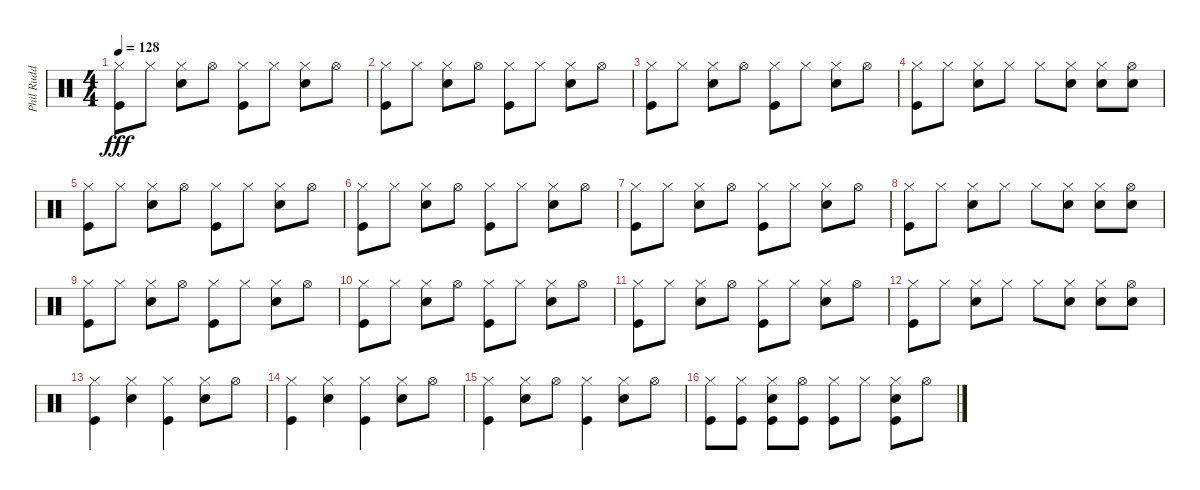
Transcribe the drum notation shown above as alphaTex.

\track ("Phil Rudd" "Phil Rudd") {instrument percussion}
\staff {score}
\articulation defaults
\ts (4 4)
\tempo 128
\clef neutral
\ks c
("Hi-Hat (closed)" "Kick (hit)").8{dy fff} "Hi-Hat (closed)".8 ("Hi-Hat (closed)" "Snare (hit) 2").8 "Hi-Hat (open)".8 ("Hi-Hat (closed)" "Kick (hit)").8 "Hi-Hat (closed)".8 ("Hi-Hat (closed)" "Snare (hit) 2").8 "Hi-Hat (open)".8 |
("Hi-Hat (closed)" "Kick (hit)").8 "Hi-Hat (closed)".8 ("Hi-Hat (closed)" "Snare (hit) 2").8 "Hi-Hat (open)".8 ("Hi-Hat (closed)" "Kick (hit)").8 "Hi-Hat (closed)".8 ("Hi-Hat (closed)" "Snare (hit) 2").8 "Hi-Hat (open)".8 |
("Hi-Hat (closed)" "Kick (hit)").8 "Hi-Hat (closed)".8 ("Hi-Hat (closed)" "Snare (hit) 2").8 "Hi-Hat (open)".8 ("Hi-Hat (closed)" "Kick (hit)").8 "Hi-Hat (closed)".8 ("Hi-Hat (closed)" "Snare (hit) 2").8 "Hi-Hat (open)".8 |
("Hi-Hat (closed)" "Kick (hit)").8 "Hi-Hat (closed)".8 ("Hi-Hat (closed)" "Snare (hit) 2").8 "Hi-Hat (closed)".8 "Hi-Hat (closed)".8 ("Hi-Hat (closed)" "Snare (hit) 2").8 ("Hi-Hat (closed)" "Snare (hit) 2").8 ("Hi-Hat (open)" "Snare (hit) 2").8 |
("Hi-Hat (closed)" "Kick (hit)").8 "Hi-Hat (closed)".8 ("Hi-Hat (closed)" "Snare (hit) 2").8 "Hi-Hat (open)".8 ("Hi-Hat (closed)" "Kick (hit)").8 "Hi-Hat (closed)".8 ("Hi-Hat (closed)" "Snare (hit) 2").8 "Hi-Hat (open)".8 |
("Hi-Hat (closed)" "Kick (hit)").8 "Hi-Hat (closed)".8 ("Hi-Hat (closed)" "Snare (hit) 2").8 "Hi-Hat (open)".8 ("Hi-Hat (closed)" "Kick (hit)").8 "Hi-Hat (closed)".8 ("Hi-Hat (closed)" "Snare (hit) 2").8 "Hi-Hat (open)".8 |
("Hi-Hat (closed)" "Kick (hit)").8 "Hi-Hat (closed)".8 ("Hi-Hat (closed)" "Snare (hit) 2").8 "Hi-Hat (open)".8 ("Hi-Hat (closed)" "Kick (hit)").8 "Hi-Hat (closed)".8 ("Hi-Hat (closed)" "Snare (hit) 2").8 "Hi-Hat (open)".8 |
("Hi-Hat (closed)" "Kick (hit)").8 "Hi-Hat (closed)".8 ("Hi-Hat (closed)" "Snare (hit) 2").8 "Hi-Hat (closed)".8 "Hi-Hat (closed)".8 ("Hi-Hat (closed)" "Snare (hit) 2").8 ("Hi-Hat (closed)" "Snare (hit) 2").8 ("Hi-Hat (open)" "Snare (hit) 2").8 |
("Hi-Hat (closed)" "Kick (hit)").8 "Hi-Hat (closed)".8 ("Hi-Hat (closed)" "Snare (hit) 2").8 "Hi-Hat (open)".8 ("Hi-Hat (closed)" "Kick (hit)").8 "Hi-Hat (closed)".8 ("Hi-Hat (closed)" "Snare (hit) 2").8 "Hi-Hat (open)".8 |
("Hi-Hat (closed)" "Kick (hit)").8 "Hi-Hat (closed)".8 ("Hi-Hat (closed)" "Snare (hit) 2").8 "Hi-Hat (open)".8 ("Hi-Hat (closed)" "Kick (hit)").8 "Hi-Hat (closed)".8 ("Hi-Hat (closed)" "Snare (hit) 2").8 "Hi-Hat (open)".8 |
("Hi-Hat (closed)" "Kick (hit)").8 "Hi-Hat (closed)".8 ("Hi-Hat (closed)" "Snare (hit) 2").8 "Hi-Hat (open)".8 ("Hi-Hat (closed)" "Kick (hit)").8 "Hi-Hat (closed)".8 ("Hi-Hat (closed)" "Snare (hit) 2").8 "Hi-Hat (open)".8 |
("Hi-Hat (closed)" "Kick (hit)").8 "Hi-Hat (closed)".8 ("Hi-Hat (closed)" "Snare (hit) 2").8 "Hi-Hat (closed)".8 "Hi-Hat (closed)".8 ("Hi-Hat (closed)" "Snare (hit) 2").8 ("Hi-Hat (closed)" "Snare (hit) 2").8 ("Hi-Hat (open)" "Snare (hit) 2").8 |
("Hi-Hat (closed)" "Kick (hit)").4 ("Hi-Hat (closed)" "Snare (hit) 2").4 ("Hi-Hat (closed)" "Kick (hit)").4 ("Hi-Hat (closed)" "Snare (hit) 2").8 "Hi-Hat (open)".8 |
("Hi-Hat (closed)" "Kick (hit)").4 ("Hi-Hat (closed)" "Snare (hit) 2").4 ("Hi-Hat (closed)" "Kick (hit)").4 ("Hi-Hat (closed)" "Snare (hit) 2").8 "Hi-Hat (open)".8 |
("Hi-Hat (closed)" "Kick (hit)").4 ("Hi-Hat (closed)" "Snare (hit) 2").8 "Hi-Hat (open)".8 ("Hi-Hat (closed)" "Kick (hit)").4 ("Hi-Hat (closed)" "Snare (hit) 2").8 "Hi-Hat (open)".8 |
("Hi-Hat (closed)" "Kick (hit)").8 ("Hi-Hat (closed)" "Kick (hit)").8 ("Hi-Hat (closed)" "Kick (hit)" "Snare (hit) 2").8 ("Hi-Hat (open)" "Kick (hit)").8 ("Hi-Hat (closed)" "Kick (hit)").8 "Hi-Hat (closed)".8 ("Hi-Hat (closed)" "Kick (hit)" "Snare (hit) 2").8 "Hi-Hat (open)".8
